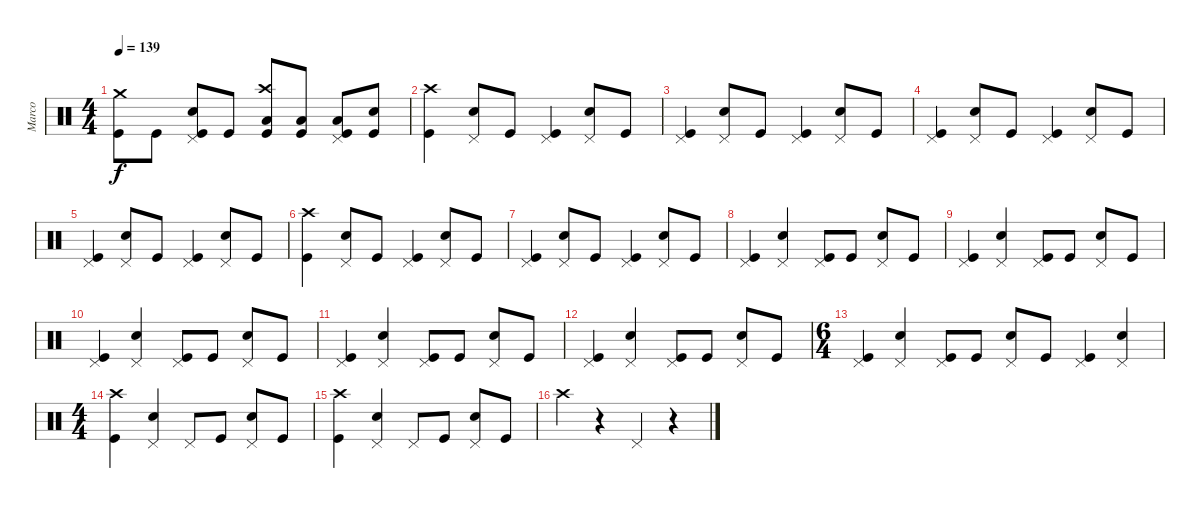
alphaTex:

\track ("Marco" "Marco") {instrument percussion}
\staff {score}
\articulation defaults
\ts (4 4)
\tempo 139
\clef neutral
\ks c
("Crash medium (hit)" "Kick (hit)").8{dy f} "Kick (hit)".8 ("Pedal Hi-Hat (hit)" "Snare (hit) 2" "Kick (hit)").8 "Kick (hit)".8 ("Crash high (hit)" "Low Tom (hit)" "Kick (hit)").8 ("Low Tom (hit)" "Kick (hit)").8 ("Pedal Hi-Hat (hit)" "Low Tom (hit)" "Kick (hit)").8 ("Snare (hit) 2" "Kick (hit)").8 |
("Crash high (hit)" "Kick (hit)").4 ("Pedal Hi-Hat (hit)" "Snare (hit) 2").8 "Kick (hit)".8 ("Pedal Hi-Hat (hit)" "Kick (hit)").4 ("Pedal Hi-Hat (hit)" "Snare (hit) 2").8 "Kick (hit)".8 |
("Pedal Hi-Hat (hit)" "Kick (hit)").4 ("Pedal Hi-Hat (hit)" "Snare (hit) 2").8 "Kick (hit)".8 ("Pedal Hi-Hat (hit)" "Kick (hit)").4 ("Pedal Hi-Hat (hit)" "Snare (hit) 2").8 "Kick (hit)".8 |
("Pedal Hi-Hat (hit)" "Kick (hit)").4 ("Pedal Hi-Hat (hit)" "Snare (hit) 2").8 "Kick (hit)".8 ("Pedal Hi-Hat (hit)" "Kick (hit)").4 ("Pedal Hi-Hat (hit)" "Snare (hit) 2").8 "Kick (hit)".8 |
("Pedal Hi-Hat (hit)" "Kick (hit)").4 ("Pedal Hi-Hat (hit)" "Snare (hit) 2").8 "Kick (hit)".8 ("Pedal Hi-Hat (hit)" "Kick (hit)").4 ("Pedal Hi-Hat (hit)" "Snare (hit) 2").8 "Kick (hit)".8 |
("Crash high (hit)" "Kick (hit)").4 ("Pedal Hi-Hat (hit)" "Snare (hit) 2").8 "Kick (hit)".8 ("Pedal Hi-Hat (hit)" "Kick (hit)").4 ("Pedal Hi-Hat (hit)" "Snare (hit) 2").8 "Kick (hit)".8 |
("Pedal Hi-Hat (hit)" "Kick (hit)").4 ("Pedal Hi-Hat (hit)" "Snare (hit) 2").8 "Kick (hit)".8 ("Pedal Hi-Hat (hit)" "Kick (hit)").4 ("Pedal Hi-Hat (hit)" "Snare (hit) 2").8 "Kick (hit)".8 |
("Pedal Hi-Hat (hit)" "Kick (hit)").4 ("Pedal Hi-Hat (hit)" "Snare (hit) 2").4 ("Pedal Hi-Hat (hit)" "Kick (hit)").8 "Kick (hit)".8 ("Pedal Hi-Hat (hit)" "Snare (hit) 2").8 "Kick (hit)".8 |
("Pedal Hi-Hat (hit)" "Kick (hit)").4 ("Pedal Hi-Hat (hit)" "Snare (hit) 2").4 ("Pedal Hi-Hat (hit)" "Kick (hit)").8 "Kick (hit)".8 ("Pedal Hi-Hat (hit)" "Snare (hit) 2").8 "Kick (hit)".8 |
("Pedal Hi-Hat (hit)" "Kick (hit)").4 ("Pedal Hi-Hat (hit)" "Snare (hit) 2").4 ("Pedal Hi-Hat (hit)" "Kick (hit)").8 "Kick (hit)".8 ("Pedal Hi-Hat (hit)" "Snare (hit) 2").8 "Kick (hit)".8 |
("Pedal Hi-Hat (hit)" "Kick (hit)").4 ("Pedal Hi-Hat (hit)" "Snare (hit) 2").4 ("Pedal Hi-Hat (hit)" "Kick (hit)").8 "Kick (hit)".8 ("Pedal Hi-Hat (hit)" "Snare (hit) 2").8 "Kick (hit)".8 |
("Pedal Hi-Hat (hit)" "Kick (hit)").4 ("Pedal Hi-Hat (hit)" "Snare (hit) 2").4 ("Pedal Hi-Hat (hit)" "Kick (hit)").8 "Kick (hit)".8 ("Pedal Hi-Hat (hit)" "Snare (hit) 2").8 "Kick (hit)".8 |
\ts (6 4)
("Pedal Hi-Hat (hit)" "Kick (hit)").4 ("Pedal Hi-Hat (hit)" "Snare (hit) 2").4 ("Pedal Hi-Hat (hit)" "Kick (hit)").8 "Kick (hit)".8 ("Pedal Hi-Hat (hit)" "Snare (hit) 2").8 "Kick (hit)".8 ("Pedal Hi-Hat (hit)" "Kick (hit)").4 ("Pedal Hi-Hat (hit)" "Snare (hit) 2").4 |
\ts (4 4)
("Crash high (hit)" "Kick (hit)").4 ("Pedal Hi-Hat (hit)" "Snare (hit) 2").4 "Pedal Hi-Hat (hit)".8 "Kick (hit)".8 ("Pedal Hi-Hat (hit)" "Snare (hit) 2").8 "Kick (hit)".8 |
("Crash high (hit)" "Kick (hit)").4 ("Pedal Hi-Hat (hit)" "Snare (hit) 2").4 "Pedal Hi-Hat (hit)".8 "Kick (hit)".8 ("Pedal Hi-Hat (hit)" "Snare (hit) 2").8 "Kick (hit)".8 |
"Crash high (hit)".4 r.4 "Pedal Hi-Hat (hit)".4 r.4
